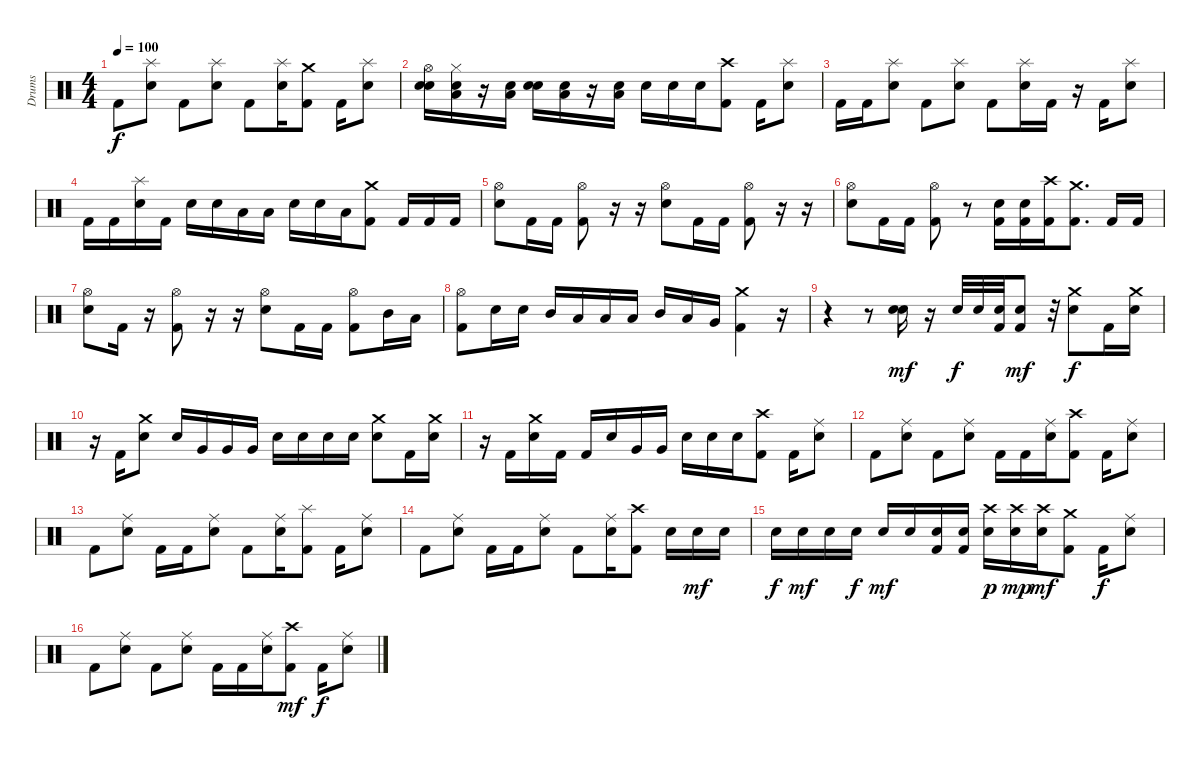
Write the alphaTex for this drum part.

\track ("Drums" "Drums") {instrument percussion}
\staff {score}
\articulation defaults
\ts (4 4)
\tempo 100
\clef neutral
\ks c "Kick (hit) 2".8{dy f}
("Splash (hit)" "Snare (hit) 2").8 "Kick (hit) 2".8 ("Splash (hit)" "Snare (hit) 2").8 "Kick (hit) 2".8 ("Splash (hit)" "Snare (hit) 2").16 ("Crash medium (hit)" "Kick (hit) 2").8 "Kick (hit) 2".16 ("Splash (hit)" "Snare (hit) 2").8 |
("Hi-Hat (open)" "Electric Snare (hit)" "Snare (hit) 2").16 ("Hi-Hat (closed)" "Low Tom (hit)" "Snare (hit) 2").16 r.16 ("Low Tom (hit)" "Snare (hit) 2").16 ("Electric Snare (hit)" "Snare (hit) 2").16 ("Low Tom (hit)" "Snare (hit) 2").16 r.16 ("Low Tom (hit)" "Snare (hit) 2").16 "Snare (hit) 2".16 "Snare (hit) 2".16 "Snare (hit) 2".16 ("Crash high (hit)" "Kick (hit) 2").8 "Kick (hit) 2".16 ("Splash (hit)" "Snare (hit) 2").8 |
"Kick (hit) 2".16 "Kick (hit) 2".16 ("Splash (hit)" "Snare (hit) 2").8 "Kick (hit) 2".8 ("Splash (hit)" "Snare (hit) 2").8 "Kick (hit) 2".8 ("Splash (hit)" "Snare (hit) 2").16 "Kick (hit) 2".16 r.16 "Kick (hit) 2".16 ("Splash (hit)" "Snare (hit) 2").8 |
"Kick (hit) 2".16 "Kick (hit) 2".16 ("Splash (hit)" "Snare (hit) 2").16 "Kick (hit) 2".16 "Snare (hit) 2".16 "Snare (hit) 2".16 "Low Tom (hit)".16 "Low Tom (hit)".16 "Snare (hit) 2".16 "Snare (hit) 2".16 "Low Tom (hit)".16 ("Crash medium (hit)" "Kick (hit) 2").8 "Kick (hit) 2".16 "Kick (hit) 2".16 "Kick (hit) 2".16 |
("Hi-Hat (open)" "Snare (hit) 2").8 "Kick (hit) 2".16 "Kick (hit) 2".16 ("Hi-Hat (open)" "Kick (hit) 2").8 r.16 r.16 ("Hi-Hat (open)" "Snare (hit) 2").8 "Kick (hit) 2".16 "Kick (hit) 2".16 ("Hi-Hat (open)" "Kick (hit) 2").8 r.16 r.16 |
("Hi-Hat (open)" "Snare (hit) 2").8 "Kick (hit) 2".16 "Kick (hit) 2".16 ("Hi-Hat (open)" "Kick (hit) 2").8 r.8 ("Snare (hit) 2" "Kick (hit) 2").16 ("Snare (hit) 2" "Kick (hit) 2").16 ("Crash high (hit)" "Kick (hit) 2").16 ("Crash medium (hit)" "Kick (hit) 2").8{d} "Kick (hit) 2".16 "Kick (hit) 2".16 |
("Hi-Hat (open)" "Snare (hit) 2").8 "Kick (hit) 2".16 r.16 ("Hi-Hat (open)" "Kick (hit) 2").8 r.16 r.16 ("Hi-Hat (open)" "Snare (hit) 2").8 "Kick (hit) 2".16 "Kick (hit) 2".16 ("Hi-Hat (open)" "Kick (hit) 2").8 "Mid Tom (hit)".16 "Low Tom (hit)".16 |
("Hi-Hat (open)" "Kick (hit) 2").8 "Snare (hit) 2".16 "Snare (hit) 2".16 "Mid Tom (hit)".16 "Low Tom (hit)".16 "Low Tom (hit)".16 "Low Tom (hit)".16 "Mid Tom (hit)".16 "Low Tom (hit)".16 "Very Low Tom (hit)".16 ("Crash medium (hit)" "Kick (hit) 2").4 r.16 |
r.4 r.8 ("Snare (hit) 2" "Electric Snare (hit)").16{dy mf} r.16 "Snare (hit) 2".32{dy f} "Snare (hit) 2".32 ("Snare (hit) 2" "Kick (hit) 2").32 ("Snare (hit) 2" "Kick (hit) 2").8{dy mf} r.32 ("Crash medium (hit)" "Snare (hit) 2").8{dy f} "Kick (hit) 2".16 ("Crash medium (hit)" "Snare (hit) 2").16 |
r.16 "Kick (hit) 2".16 ("Crash medium (hit)" "Snare (hit) 2").8 "Snare (hit) 2".16 "Very Low Tom (hit)".16 "Very Low Tom (hit)".16 "Very Low Tom (hit)".16 "Snare (hit) 2".16 "Snare (hit) 2".16 "Snare (hit) 2".16 "Snare (hit) 2".16 ("Crash medium (hit)" "Snare (hit) 2").8 "Kick (hit) 2".16 ("Crash medium (hit)" "Snare (hit) 2").16 |
r.16 "Kick (hit) 2".16 ("Crash medium (hit)" "Snare (hit) 2").16 "Kick (hit) 2".16 "Kick (hit) 2".16 "Snare (hit) 2".16 "Very Low Tom (hit)".16 "Very Low Tom (hit)".16 "Snare (hit) 2".16 "Snare (hit) 2".16 "Snare (hit) 2".16 ("Crash high (hit)" "Kick (hit) 2").8 "Kick (hit) 2".16 ("Ride (middle)" "Snare (hit) 2").8 |
"Kick (hit) 2".8 ("Ride (middle)" "Snare (hit) 2").8 "Kick (hit) 2".8 ("Ride (middle)" "Snare (hit) 2").8 "Kick (hit) 2".16 "Kick (hit) 2".16 ("Ride (middle)" "Snare (hit) 2").16 ("Crash high (hit)" "Kick (hit) 2").8 "Kick (hit) 2".16 ("Ride (middle)" "Snare (hit) 2").8 |
"Kick (hit) 2".8 ("Ride (middle)" "Snare (hit) 2").8 "Kick (hit) 2".16 "Kick (hit) 2".16 ("Ride (middle)" "Snare (hit) 2").8 "Kick (hit) 2".8 ("Ride (middle)" "Snare (hit) 2").16 ("Splash (hit)" "Kick (hit) 2").8 "Kick (hit) 2".16 ("Ride (middle)" "Snare (hit) 2").8 |
"Kick (hit) 2".8 ("Ride (middle)" "Snare (hit) 2").8 "Kick (hit) 2".16 "Kick (hit) 2".16 ("Ride (middle)" "Snare (hit) 2").8 "Kick (hit) 2".8 ("Ride (middle)" "Snare (hit) 2").16 ("Crash high (hit)" "Kick (hit) 2").8 "Snare (hit) 2".16 "Snare (hit) 2".16{dy mf} "Snare (hit) 2".16 |
"Snare (hit) 2".16{dy f} "Snare (hit) 2".16{dy mf} "Snare (hit) 2".16 "Snare (hit) 2".16{dy f} "Snare (hit) 2".16{dy mf} "Snare (hit) 2".16 ("Snare (hit) 2" "Kick (hit) 2").16 ("Snare (hit) 2" "Kick (hit) 2").16 ("Crash high (hit)" "Snare (hit) 2").16{dy p} ("Crash high (hit)" "Snare (hit) 2").16{dy mp} ("Crash high (hit)" "Snare (hit) 2").16{dy mf} ("Crash medium (hit)" "Kick (hit) 2").8 "Kick (hit) 2".16{dy f} ("Ride (middle)" "Snare (hit) 2").8 |
"Kick (hit) 2".8 ("Ride (middle)" "Snare (hit) 2").8 "Kick (hit) 2".8 ("Ride (middle)" "Snare (hit) 2").8 "Kick (hit) 2".16 "Kick (hit) 2".16 ("Ride (middle)" "Snare (hit) 2").16 ("Crash high (hit)" "Kick (hit) 2").8{dy mf} "Kick (hit) 2".16{dy f} ("Ride (middle)" "Snare (hit) 2").8
